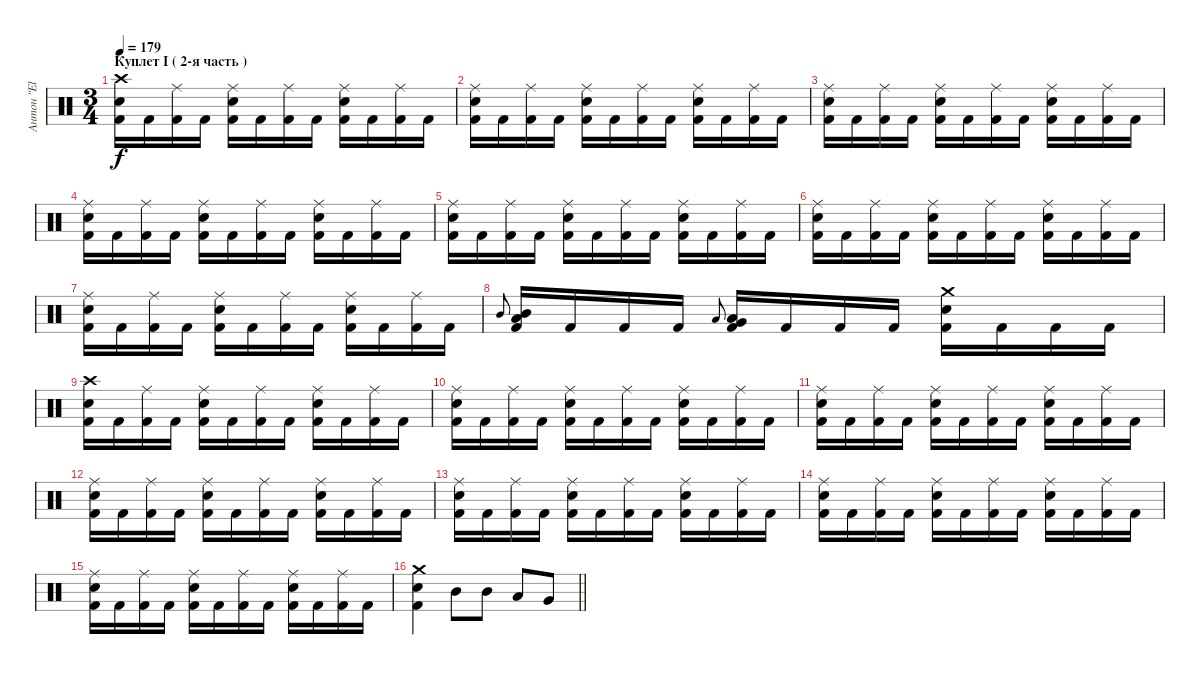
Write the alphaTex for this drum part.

\track ("Антон \"El Bastardo\" Смольянин" "Антон \"El ") {instrument percussion}
\staff {score}
\articulation defaults
\ts (3 4)
\section ("" "Куплет I ( 2-я часть )")
\tempo 179
\clef neutral
\ks c
("Crash high (hit)" "Electric Snare (hit)" "Kick (hit) 2").16{dy f} "Kick (hit) 2".16 ("Ride (middle)" "Kick (hit) 2").16 "Kick (hit) 2".16 ("Ride (middle)" "Electric Snare (hit)" "Kick (hit) 2").16 "Kick (hit) 2".16 ("Ride (middle)" "Kick (hit) 2").16 "Kick (hit) 2".16 ("Ride (middle)" "Electric Snare (hit)" "Kick (hit) 2").16 "Kick (hit) 2".16 ("Ride (middle)" "Kick (hit) 2").16 "Kick (hit) 2".16 |
("Ride (middle)" "Electric Snare (hit)" "Kick (hit) 2").16 "Kick (hit) 2".16 ("Ride (middle)" "Kick (hit) 2").16 "Kick (hit) 2".16 ("Ride (middle)" "Electric Snare (hit)" "Kick (hit) 2").16 "Kick (hit) 2".16 ("Ride (middle)" "Kick (hit) 2").16 "Kick (hit) 2".16 ("Ride (middle)" "Electric Snare (hit)" "Kick (hit) 2").16 "Kick (hit) 2".16 ("Ride (middle)" "Kick (hit) 2").16 "Kick (hit) 2".16 |
("Ride (middle)" "Electric Snare (hit)" "Kick (hit) 2").16 "Kick (hit) 2".16 ("Ride (middle)" "Kick (hit) 2").16 "Kick (hit) 2".16 ("Ride (middle)" "Electric Snare (hit)" "Kick (hit) 2").16 "Kick (hit) 2".16 ("Ride (middle)" "Kick (hit) 2").16 "Kick (hit) 2".16 ("Ride (middle)" "Electric Snare (hit)" "Kick (hit) 2").16 "Kick (hit) 2".16 ("Ride (middle)" "Kick (hit) 2").16 "Kick (hit) 2".16 |
("Ride (middle)" "Electric Snare (hit)" "Kick (hit) 2").16 "Kick (hit) 2".16 ("Ride (middle)" "Kick (hit) 2").16 "Kick (hit) 2".16 ("Ride (middle)" "Electric Snare (hit)" "Kick (hit) 2").16 "Kick (hit) 2".16 ("Ride (middle)" "Kick (hit) 2").16 "Kick (hit) 2".16 ("Ride (middle)" "Electric Snare (hit)" "Kick (hit) 2").16 "Kick (hit) 2".16 ("Ride (middle)" "Kick (hit) 2").16 "Kick (hit) 2".16 |
("Ride (middle)" "Electric Snare (hit)" "Kick (hit) 2").16 "Kick (hit) 2".16 ("Ride (middle)" "Kick (hit) 2").16 "Kick (hit) 2".16 ("Ride (middle)" "Electric Snare (hit)" "Kick (hit) 2").16 "Kick (hit) 2".16 ("Ride (middle)" "Kick (hit) 2").16 "Kick (hit) 2".16 ("Ride (middle)" "Electric Snare (hit)" "Kick (hit) 2").16 "Kick (hit) 2".16 ("Ride (middle)" "Kick (hit) 2").16 "Kick (hit) 2".16 |
("Ride (middle)" "Electric Snare (hit)" "Kick (hit) 2").16 "Kick (hit) 2".16 ("Ride (middle)" "Kick (hit) 2").16 "Kick (hit) 2".16 ("Ride (middle)" "Electric Snare (hit)" "Kick (hit) 2").16 "Kick (hit) 2".16 ("Ride (middle)" "Kick (hit) 2").16 "Kick (hit) 2".16 ("Ride (middle)" "Electric Snare (hit)" "Kick (hit) 2").16 "Kick (hit) 2".16 ("Ride (middle)" "Kick (hit) 2").16 "Kick (hit) 2".16 |
("Ride (middle)" "Electric Snare (hit)" "Kick (hit) 2").16 "Kick (hit) 2".16 ("Ride (middle)" "Kick (hit) 2").16 "Kick (hit) 2".16 ("Ride (middle)" "Electric Snare (hit)" "Kick (hit) 2").16 "Kick (hit) 2".16 ("Ride (middle)" "Kick (hit) 2").16 "Kick (hit) 2".16 ("Ride (middle)" "Electric Snare (hit)" "Kick (hit) 2").16 "Kick (hit) 2".16 ("Ride (middle)" "Kick (hit) 2").16 "Kick (hit) 2".16 |
"Mid Tom (hit)".8{gr onbeat} ("Mid Tom (hit)" "Low Tom (hit)" "Kick (hit) 2").16 "Kick (hit) 2".16 "Kick (hit) 2".16 "Kick (hit) 2".16 "Low Tom (hit)".8{gr onbeat} ("Low Tom (hit)" "Very Low Tom (hit)" "Kick (hit) 2").16 "Kick (hit) 2".16 "Kick (hit) 2".16 "Kick (hit) 2".16 ("Crash medium (hit)" "Electric Snare (hit)" "Kick (hit) 2").16 "Kick (hit) 2".16 "Kick (hit) 2".16 "Kick (hit) 2".16 |
("Crash high (hit)" "Electric Snare (hit)" "Kick (hit) 2").16 "Kick (hit) 2".16 ("Ride (middle)" "Kick (hit) 2").16 "Kick (hit) 2".16 ("Ride (middle)" "Electric Snare (hit)" "Kick (hit) 2").16 "Kick (hit) 2".16 ("Ride (middle)" "Kick (hit) 2").16 "Kick (hit) 2".16 ("Ride (middle)" "Electric Snare (hit)" "Kick (hit) 2").16 "Kick (hit) 2".16 ("Ride (middle)" "Kick (hit) 2").16 "Kick (hit) 2".16 |
("Ride (middle)" "Electric Snare (hit)" "Kick (hit) 2").16 "Kick (hit) 2".16 ("Ride (middle)" "Kick (hit) 2").16 "Kick (hit) 2".16 ("Ride (middle)" "Electric Snare (hit)" "Kick (hit) 2").16 "Kick (hit) 2".16 ("Ride (middle)" "Kick (hit) 2").16 "Kick (hit) 2".16 ("Ride (middle)" "Electric Snare (hit)" "Kick (hit) 2").16 "Kick (hit) 2".16 ("Ride (middle)" "Kick (hit) 2").16 "Kick (hit) 2".16 |
("Ride (middle)" "Electric Snare (hit)" "Kick (hit) 2").16 "Kick (hit) 2".16 ("Ride (middle)" "Kick (hit) 2").16 "Kick (hit) 2".16 ("Ride (middle)" "Electric Snare (hit)" "Kick (hit) 2").16 "Kick (hit) 2".16 ("Ride (middle)" "Kick (hit) 2").16 "Kick (hit) 2".16 ("Ride (middle)" "Electric Snare (hit)" "Kick (hit) 2").16 "Kick (hit) 2".16 ("Ride (middle)" "Kick (hit) 2").16 "Kick (hit) 2".16 |
("Ride (middle)" "Electric Snare (hit)" "Kick (hit) 2").16 "Kick (hit) 2".16 ("Ride (middle)" "Kick (hit) 2").16 "Kick (hit) 2".16 ("Ride (middle)" "Electric Snare (hit)" "Kick (hit) 2").16 "Kick (hit) 2".16 ("Ride (middle)" "Kick (hit) 2").16 "Kick (hit) 2".16 ("Ride (middle)" "Electric Snare (hit)" "Kick (hit) 2").16 "Kick (hit) 2".16 ("Ride (middle)" "Kick (hit) 2").16 "Kick (hit) 2".16 |
("Ride (middle)" "Electric Snare (hit)" "Kick (hit) 2").16 "Kick (hit) 2".16 ("Ride (middle)" "Kick (hit) 2").16 "Kick (hit) 2".16 ("Ride (middle)" "Electric Snare (hit)" "Kick (hit) 2").16 "Kick (hit) 2".16 ("Ride (middle)" "Kick (hit) 2").16 "Kick (hit) 2".16 ("Ride (middle)" "Electric Snare (hit)" "Kick (hit) 2").16 "Kick (hit) 2".16 ("Ride (middle)" "Kick (hit) 2").16 "Kick (hit) 2".16 |
("Ride (middle)" "Electric Snare (hit)" "Kick (hit) 2").16 "Kick (hit) 2".16 ("Ride (middle)" "Kick (hit) 2").16 "Kick (hit) 2".16 ("Ride (middle)" "Electric Snare (hit)" "Kick (hit) 2").16 "Kick (hit) 2".16 ("Ride (middle)" "Kick (hit) 2").16 "Kick (hit) 2".16 ("Ride (middle)" "Electric Snare (hit)" "Kick (hit) 2").16 "Kick (hit) 2".16 ("Ride (middle)" "Kick (hit) 2").16 "Kick (hit) 2".16 |
("Ride (middle)" "Electric Snare (hit)" "Kick (hit) 2").16 "Kick (hit) 2".16 ("Ride (middle)" "Kick (hit) 2").16 "Kick (hit) 2".16 ("Ride (middle)" "Electric Snare (hit)" "Kick (hit) 2").16 "Kick (hit) 2".16 ("Ride (middle)" "Kick (hit) 2").16 "Kick (hit) 2".16 ("Ride (middle)" "Electric Snare (hit)" "Kick (hit) 2").16 "Kick (hit) 2".16 ("Ride (middle)" "Kick (hit) 2").16 "Kick (hit) 2".16 |
\barLineRight lightlight
("Crash medium (hit)" "Electric Snare (hit)" "Kick (hit) 2").4 "Mid Tom (hit)".8 "Mid Tom (hit)".8 "Low Tom (hit)".8 "Very Low Tom (hit)".8
